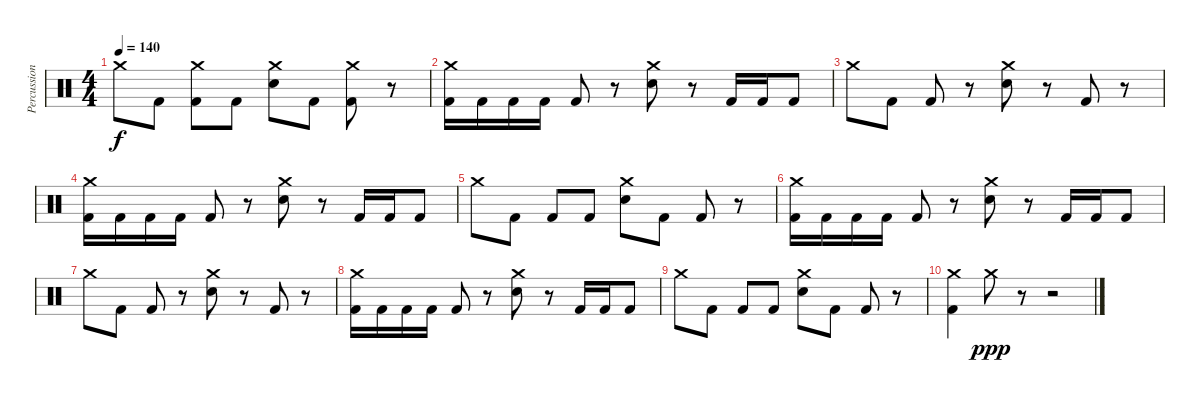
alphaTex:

\track ("Percussion" "Percussion") {instrument percussion}
\staff {score}
\articulation defaults
\ts (4 4)
\tempo 140
\clef neutral
\ks c "Crash medium (hit)".8{dy f} "Kick (hit) 2".8
("Crash medium (hit)" "Kick (hit) 2").8 "Kick (hit) 2".8 ("Crash medium (hit)" "Electric Snare (hit)").8 "Kick (hit) 2".8 ("Crash medium (hit)" "Kick (hit) 2").8 r.8 |
("Crash medium (hit)" "Kick (hit) 2").16 "Kick (hit) 2".16 "Kick (hit) 2".16 "Kick (hit) 2".16 "Kick (hit) 2".8 r.8 ("Crash medium (hit)" "Electric Snare (hit)").8 r.8 "Kick (hit) 2".16 "Kick (hit) 2".16 "Kick (hit) 2".8 |
"Crash medium (hit)".8 "Kick (hit) 2".8 "Kick (hit) 2".8 r.8 ("Crash medium (hit)" "Electric Snare (hit)").8 r.8 "Kick (hit) 2".8 r.8 |
("Crash medium (hit)" "Kick (hit) 2").16 "Kick (hit) 2".16 "Kick (hit) 2".16 "Kick (hit) 2".16 "Kick (hit) 2".8 r.8 ("Crash medium (hit)" "Electric Snare (hit)").8 r.8 "Kick (hit) 2".16 "Kick (hit) 2".16 "Kick (hit) 2".8 |
"Crash medium (hit)".8 "Kick (hit) 2".8 "Kick (hit) 2".8 "Kick (hit) 2".8 ("Crash medium (hit)" "Electric Snare (hit)").8 "Kick (hit) 2".8 "Kick (hit) 2".8 r.8 |
("Crash medium (hit)" "Kick (hit) 2").16 "Kick (hit) 2".16 "Kick (hit) 2".16 "Kick (hit) 2".16 "Kick (hit) 2".8 r.8 ("Crash medium (hit)" "Electric Snare (hit)").8 r.8 "Kick (hit) 2".16 "Kick (hit) 2".16 "Kick (hit) 2".8 |
"Crash medium (hit)".8 "Kick (hit) 2".8 "Kick (hit) 2".8 r.8 ("Crash medium (hit)" "Electric Snare (hit)").8 r.8 "Kick (hit) 2".8 r.8 |
("Crash medium (hit)" "Kick (hit) 2").16 "Kick (hit) 2".16 "Kick (hit) 2".16 "Kick (hit) 2".16 "Kick (hit) 2".8 r.8 ("Crash medium (hit)" "Electric Snare (hit)").8 r.8 "Kick (hit) 2".16 "Kick (hit) 2".16 "Kick (hit) 2".8 |
"Crash medium (hit)".8 "Kick (hit) 2".8 "Kick (hit) 2".8 "Kick (hit) 2".8 ("Crash medium (hit)" "Electric Snare (hit)").8 "Kick (hit) 2".8 "Kick (hit) 2".8 r.8 |
("Crash medium (hit)" "Kick (hit) 2").4 "Crash medium (hit)".8{dy ppp} r.8 r.2
